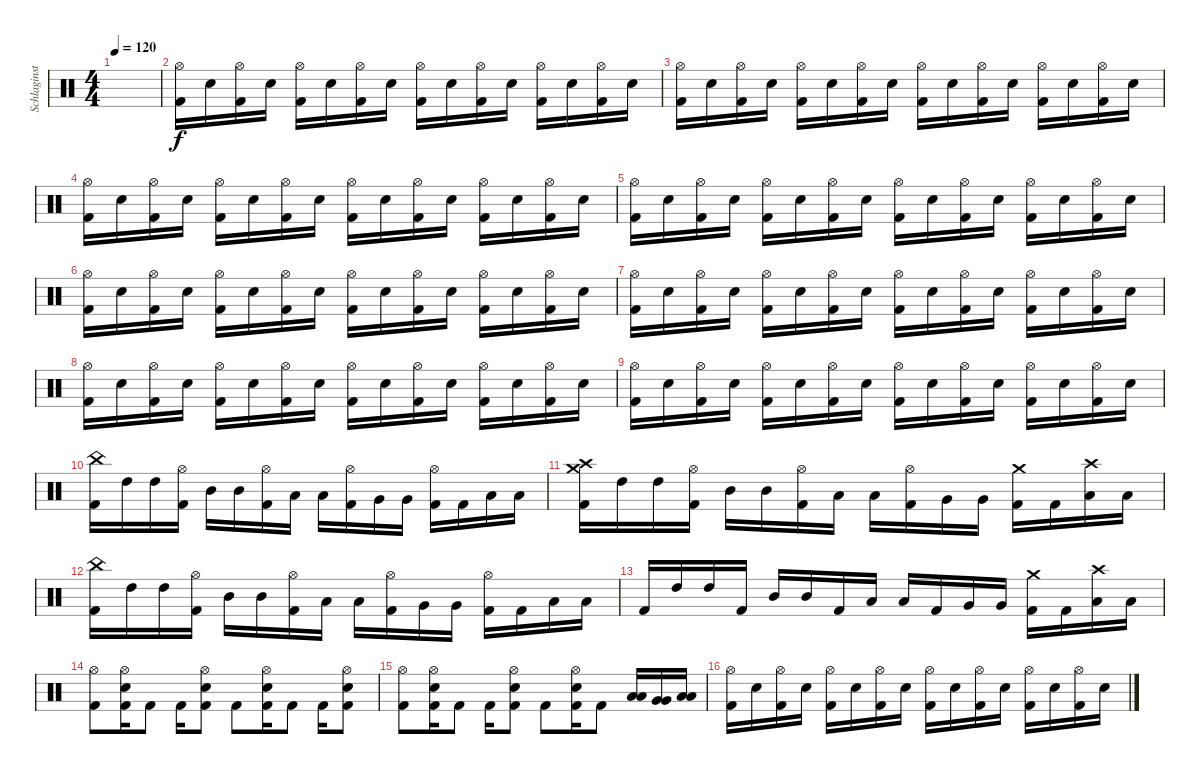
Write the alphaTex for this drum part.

\track ("Schlaginstrumente - Auswahl" "Schlaginst") {instrument percussion}
\staff {score}
\articulation defaults
\ts (4 4)
\tempo 120
\clef neutral
\ks c
|
("Hi-Hat (open)" "Kick (hit) 2").16 "Electric Snare (hit)".16 ("Hi-Hat (open)" "Kick (hit) 2").16 "Electric Snare (hit)".16 ("Hi-Hat (open)" "Kick (hit) 2").16 "Electric Snare (hit)".16 ("Hi-Hat (open)" "Kick (hit) 2").16 "Electric Snare (hit)".16 ("Hi-Hat (open)" "Kick (hit) 2").16 "Electric Snare (hit)".16 ("Hi-Hat (open)" "Kick (hit) 2").16 "Electric Snare (hit)".16 ("Hi-Hat (open)" "Kick (hit) 2").16 "Electric Snare (hit)".16 ("Hi-Hat (open)" "Kick (hit) 2").16 "Electric Snare (hit)".16 |
("Hi-Hat (open)" "Kick (hit) 2").16 "Electric Snare (hit)".16 ("Hi-Hat (open)" "Kick (hit) 2").16 "Electric Snare (hit)".16 ("Hi-Hat (open)" "Kick (hit) 2").16 "Electric Snare (hit)".16 ("Hi-Hat (open)" "Kick (hit) 2").16 "Electric Snare (hit)".16 ("Hi-Hat (open)" "Kick (hit) 2").16 "Electric Snare (hit)".16 ("Hi-Hat (open)" "Kick (hit) 2").16 "Electric Snare (hit)".16 ("Hi-Hat (open)" "Kick (hit) 2").16 "Electric Snare (hit)".16 ("Hi-Hat (open)" "Kick (hit) 2").16 "Electric Snare (hit)".16 |
("Hi-Hat (open)" "Kick (hit) 2").16 "Electric Snare (hit)".16 ("Hi-Hat (open)" "Kick (hit) 2").16 "Electric Snare (hit)".16 ("Hi-Hat (open)" "Kick (hit) 2").16 "Electric Snare (hit)".16 ("Hi-Hat (open)" "Kick (hit) 2").16 "Electric Snare (hit)".16 ("Hi-Hat (open)" "Kick (hit) 2").16 "Electric Snare (hit)".16 ("Hi-Hat (open)" "Kick (hit) 2").16 "Electric Snare (hit)".16 ("Hi-Hat (open)" "Kick (hit) 2").16 "Electric Snare (hit)".16 ("Hi-Hat (open)" "Kick (hit) 2").16 "Electric Snare (hit)".16 |
("Hi-Hat (open)" "Kick (hit) 2").16 "Electric Snare (hit)".16 ("Hi-Hat (open)" "Kick (hit) 2").16 "Electric Snare (hit)".16 ("Hi-Hat (open)" "Kick (hit) 2").16 "Electric Snare (hit)".16 ("Hi-Hat (open)" "Kick (hit) 2").16 "Electric Snare (hit)".16 ("Hi-Hat (open)" "Kick (hit) 2").16 "Electric Snare (hit)".16 ("Hi-Hat (open)" "Kick (hit) 2").16 "Electric Snare (hit)".16 ("Hi-Hat (open)" "Kick (hit) 2").16 "Electric Snare (hit)".16 ("Hi-Hat (open)" "Kick (hit) 2").16 "Electric Snare (hit)".16 |
("Hi-Hat (open)" "Kick (hit) 2").16 "Electric Snare (hit)".16 ("Hi-Hat (open)" "Kick (hit) 2").16 "Electric Snare (hit)".16 ("Hi-Hat (open)" "Kick (hit) 2").16 "Electric Snare (hit)".16 ("Hi-Hat (open)" "Kick (hit) 2").16 "Electric Snare (hit)".16 ("Hi-Hat (open)" "Kick (hit) 2").16 "Electric Snare (hit)".16 ("Hi-Hat (open)" "Kick (hit) 2").16 "Electric Snare (hit)".16 ("Hi-Hat (open)" "Kick (hit) 2").16 "Electric Snare (hit)".16 ("Hi-Hat (open)" "Kick (hit) 2").16 "Electric Snare (hit)".16 |
("Hi-Hat (open)" "Kick (hit) 2").16 "Electric Snare (hit)".16 ("Hi-Hat (open)" "Kick (hit) 2").16 "Electric Snare (hit)".16 ("Hi-Hat (open)" "Kick (hit) 2").16 "Electric Snare (hit)".16 ("Hi-Hat (open)" "Kick (hit) 2").16 "Electric Snare (hit)".16 ("Hi-Hat (open)" "Kick (hit) 2").16 "Electric Snare (hit)".16 ("Hi-Hat (open)" "Kick (hit) 2").16 "Electric Snare (hit)".16 ("Hi-Hat (open)" "Kick (hit) 2").16 "Electric Snare (hit)".16 ("Hi-Hat (open)" "Kick (hit) 2").16 "Electric Snare (hit)".16 |
("Hi-Hat (open)" "Kick (hit) 2").16 "Electric Snare (hit)".16 ("Hi-Hat (open)" "Kick (hit) 2").16 "Electric Snare (hit)".16 ("Hi-Hat (open)" "Kick (hit) 2").16 "Electric Snare (hit)".16 ("Hi-Hat (open)" "Kick (hit) 2").16 "Electric Snare (hit)".16 ("Hi-Hat (open)" "Kick (hit) 2").16 "Electric Snare (hit)".16 ("Hi-Hat (open)" "Kick (hit) 2").16 "Electric Snare (hit)".16 ("Hi-Hat (open)" "Kick (hit) 2").16 "Electric Snare (hit)".16 ("Hi-Hat (open)" "Kick (hit) 2").16 "Electric Snare (hit)".16 |
("Hi-Hat (open)" "Kick (hit) 2").16 "Electric Snare (hit)".16 ("Hi-Hat (open)" "Kick (hit) 2").16 "Electric Snare (hit)".16 ("Hi-Hat (open)" "Kick (hit) 2").16 "Electric Snare (hit)".16 ("Hi-Hat (open)" "Kick (hit) 2").16 "Electric Snare (hit)".16 ("Hi-Hat (open)" "Kick (hit) 2").16 "Electric Snare (hit)".16 ("Hi-Hat (open)" "Kick (hit) 2").16 "Electric Snare (hit)".16 ("Hi-Hat (open)" "Kick (hit) 2").16 "Electric Snare (hit)".16 ("Hi-Hat (open)" "Kick (hit) 2").16 "Electric Snare (hit)".16 |
("China (hit)" "Kick (hit) 2").16 "High Tom (hit)".16 "High Tom (hit)".16 ("Hi-Hat (open)" "Kick (hit) 2").16 "Mid Tom (hit)".16 "Mid Tom (hit)".16 ("Hi-Hat (open)" "Kick (hit) 2").16 "Low Tom (hit)".16 "Low Tom (hit)".16 ("Hi-Hat (open)" "Kick (hit) 2").16 "Very Low Tom (hit)".16 "Very Low Tom (hit)".16 ("Hi-Hat (open)" "Kick (hit) 2").16 "Kick (hit) 2".16 "Low Floor Tom (hit)".16 "Low Floor Tom (hit)".16 |
("Crash high (hit)" "Crash medium (hit)" "Kick (hit) 2").16 "High Tom (hit)".16 "High Tom (hit)".16 ("Hi-Hat (open)" "Kick (hit) 2").16 "Mid Tom (hit)".16 "Mid Tom (hit)".16 ("Hi-Hat (open)" "Kick (hit) 2").16 "Low Tom (hit)".16 "Low Tom (hit)".16 ("Hi-Hat (open)" "Kick (hit) 2").16 "Very Low Tom (hit)".16 "Very Low Tom (hit)".16 ("Crash medium (hit)" "Kick (hit) 2").16 "Kick (hit) 2".16 ("Crash high (hit)" "Low Floor Tom (hit)").16 "Low Floor Tom (hit)".16 |
("China (hit)" "Kick (hit) 2").16 "High Tom (hit)".16 "High Tom (hit)".16 ("Hi-Hat (open)" "Kick (hit) 2").16 "Mid Tom (hit)".16 "Mid Tom (hit)".16 ("Hi-Hat (open)" "Kick (hit) 2").16 "Low Tom (hit)".16 "Low Tom (hit)".16 ("Hi-Hat (open)" "Kick (hit) 2").16 "Very Low Tom (hit)".16 "Very Low Tom (hit)".16 ("Hi-Hat (open)" "Kick (hit) 2").16 "Kick (hit) 2".16 "Low Floor Tom (hit)".16 "Low Floor Tom (hit)".16 |
"Kick (hit) 2".16 "High Tom (hit)".16 "High Tom (hit)".16 "Kick (hit) 2".16 "Mid Tom (hit)".16 "Mid Tom (hit)".16 "Kick (hit) 2".16 "Low Tom (hit)".16 "Low Tom (hit)".16 "Kick (hit) 2".16 "Very Low Tom (hit)".16 "Very Low Tom (hit)".16 ("Crash medium (hit)" "Kick (hit) 2").16 "Kick (hit) 2".16 ("Crash high (hit)" "Low Floor Tom (hit)").16 "Low Floor Tom (hit)".16 |
("Hi-Hat (open)" "Kick (hit) 2").8 ("Hi-Hat (open)" "Electric Snare (hit)" "Kick (hit) 2").16 "Kick (hit) 2".8 "Kick (hit) 2".16 ("Hi-Hat (open)" "Electric Snare (hit)" "Kick (hit) 2").8 "Kick (hit) 2".8 ("Hi-Hat (open)" "Electric Snare (hit)" "Kick (hit) 2").16 "Kick (hit) 2".8 "Kick (hit) 2".16 ("Hi-Hat (open)" "Electric Snare (hit)" "Kick (hit) 2").8 |
("Hi-Hat (open)" "Kick (hit) 2").8 ("Hi-Hat (open)" "Electric Snare (hit)" "Kick (hit) 2").16 "Kick (hit) 2".8 "Kick (hit) 2".16 ("Hi-Hat (open)" "Electric Snare (hit)" "Kick (hit) 2").8 "Kick (hit) 2".8 ("Hi-Hat (open)" "Electric Snare (hit)" "Kick (hit) 2").16 "Kick (hit) 2".8 ("Low Tom (hit)" "Low Tom (hit)").16 ("Very Low Tom (hit)" "Very Low Tom (hit)").16 ("Low Floor Tom (hit)" "Low Floor Tom (hit)").16 |
("Hi-Hat (open)" "Kick (hit) 2").16 "Electric Snare (hit)".16 ("Hi-Hat (open)" "Kick (hit) 2").16 "Electric Snare (hit)".16 ("Hi-Hat (open)" "Kick (hit) 2").16 "Electric Snare (hit)".16 ("Hi-Hat (open)" "Kick (hit) 2").16 "Electric Snare (hit)".16 ("Hi-Hat (open)" "Kick (hit) 2").16 "Electric Snare (hit)".16 ("Hi-Hat (open)" "Kick (hit) 2").16 "Electric Snare (hit)".16 ("Hi-Hat (open)" "Kick (hit) 2").16 "Electric Snare (hit)".16 ("Hi-Hat (open)" "Kick (hit) 2").16 "Electric Snare (hit)".16
